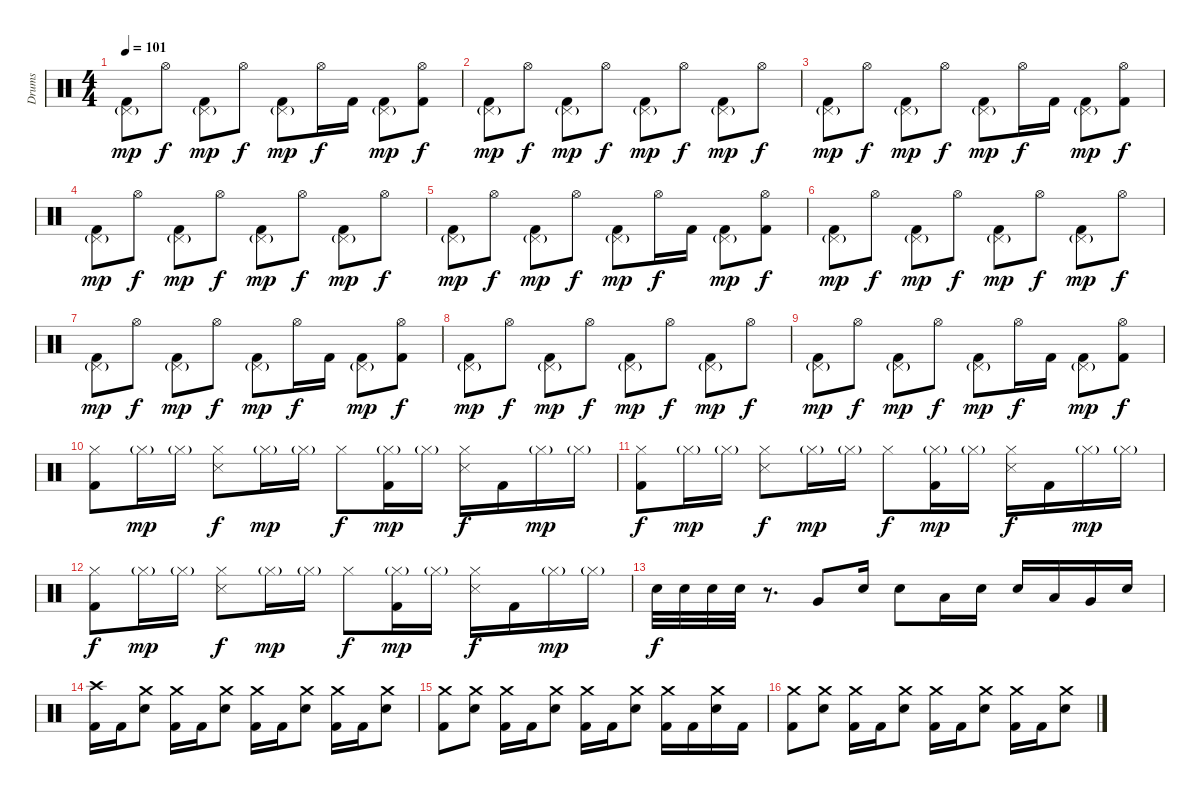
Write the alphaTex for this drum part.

\track ("Drums" "Drums") {instrument percussion}
\staff {score}
\articulation defaults
\ts (4 4)
\tempo 101
\clef neutral
\ks c
("Pedal Hi-Hat (hit)"{g} "Kick (hit) 2").8{dy mp} "Hi-Hat (open)".8{dy f} ("Pedal Hi-Hat (hit)"{g} "Kick (hit) 2").8{dy mp} "Hi-Hat (open)".8{dy f} ("Pedal Hi-Hat (hit)"{g} "Kick (hit) 2").8{dy mp} "Hi-Hat (open)".16{dy f} "Kick (hit) 2".16 ("Pedal Hi-Hat (hit)"{g} "Kick (hit) 2").8{dy mp} ("Hi-Hat (open)" "Kick (hit) 2").8{dy f} |
("Pedal Hi-Hat (hit)"{g} "Kick (hit) 2").8{dy mp} "Hi-Hat (open)".8{dy f} ("Pedal Hi-Hat (hit)"{g} "Kick (hit) 2").8{dy mp} "Hi-Hat (open)".8{dy f} ("Pedal Hi-Hat (hit)"{g} "Kick (hit) 2").8{dy mp} "Hi-Hat (open)".8{dy f} ("Pedal Hi-Hat (hit)"{g} "Kick (hit) 2").8{dy mp} "Hi-Hat (open)".8{dy f} |
("Pedal Hi-Hat (hit)"{g} "Kick (hit) 2").8{dy mp} "Hi-Hat (open)".8{dy f} ("Pedal Hi-Hat (hit)"{g} "Kick (hit) 2").8{dy mp} "Hi-Hat (open)".8{dy f} ("Pedal Hi-Hat (hit)"{g} "Kick (hit) 2").8{dy mp} "Hi-Hat (open)".16{dy f} "Kick (hit) 2".16 ("Pedal Hi-Hat (hit)"{g} "Kick (hit) 2").8{dy mp} ("Hi-Hat (open)" "Kick (hit) 2").8{dy f} |
("Pedal Hi-Hat (hit)"{g} "Kick (hit) 2").8{dy mp} "Hi-Hat (open)".8{dy f} ("Pedal Hi-Hat (hit)"{g} "Kick (hit) 2").8{dy mp} "Hi-Hat (open)".8{dy f} ("Pedal Hi-Hat (hit)"{g} "Kick (hit) 2").8{dy mp} "Hi-Hat (open)".8{dy f} ("Pedal Hi-Hat (hit)"{g} "Kick (hit) 2").8{dy mp} "Hi-Hat (open)".8{dy f} |
("Pedal Hi-Hat (hit)"{g} "Kick (hit) 2").8{dy mp} "Hi-Hat (open)".8{dy f} ("Pedal Hi-Hat (hit)"{g} "Kick (hit) 2").8{dy mp} "Hi-Hat (open)".8{dy f} ("Pedal Hi-Hat (hit)"{g} "Kick (hit) 2").8{dy mp} "Hi-Hat (open)".16{dy f} "Kick (hit) 2".16 ("Pedal Hi-Hat (hit)"{g} "Kick (hit) 2").8{dy mp} ("Hi-Hat (open)" "Kick (hit) 2").8{dy f} |
("Pedal Hi-Hat (hit)"{g} "Kick (hit) 2").8{dy mp} "Hi-Hat (open)".8{dy f} ("Pedal Hi-Hat (hit)"{g} "Kick (hit) 2").8{dy mp} "Hi-Hat (open)".8{dy f} ("Pedal Hi-Hat (hit)"{g} "Kick (hit) 2").8{dy mp} "Hi-Hat (open)".8{dy f} ("Pedal Hi-Hat (hit)"{g} "Kick (hit) 2").8{dy mp} "Hi-Hat (open)".8{dy f} |
("Pedal Hi-Hat (hit)"{g} "Kick (hit) 2").8{dy mp} "Hi-Hat (open)".8{dy f} ("Pedal Hi-Hat (hit)"{g} "Kick (hit) 2").8{dy mp} "Hi-Hat (open)".8{dy f} ("Pedal Hi-Hat (hit)"{g} "Kick (hit) 2").8{dy mp} "Hi-Hat (open)".16{dy f} "Kick (hit) 2".16 ("Pedal Hi-Hat (hit)"{g} "Kick (hit) 2").8{dy mp} ("Hi-Hat (open)" "Kick (hit) 2").8{dy f} |
("Pedal Hi-Hat (hit)"{g} "Kick (hit) 2").8{dy mp} "Hi-Hat (open)".8{dy f} ("Pedal Hi-Hat (hit)"{g} "Kick (hit) 2").8{dy mp} "Hi-Hat (open)".8{dy f} ("Pedal Hi-Hat (hit)"{g} "Kick (hit) 2").8{dy mp} "Hi-Hat (open)".8{dy f} ("Pedal Hi-Hat (hit)"{g} "Kick (hit) 2").8{dy mp} "Hi-Hat (open)".8{dy f} |
("Pedal Hi-Hat (hit)"{g} "Kick (hit) 2").8{dy mp} "Hi-Hat (open)".8{dy f} ("Pedal Hi-Hat (hit)"{g} "Kick (hit) 2").8{dy mp} "Hi-Hat (open)".8{dy f} ("Pedal Hi-Hat (hit)"{g} "Kick (hit) 2").8{dy mp} "Hi-Hat (open)".16{dy f} "Kick (hit) 2".16 ("Pedal Hi-Hat (hit)"{g} "Kick (hit) 2").8{dy mp} ("Hi-Hat (open)" "Kick (hit) 2").8{dy f} |
("Hi-Hat (closed)" "Kick (hit) 2").8 "Hi-Hat (closed)"{g}.16{dy mp} "Hi-Hat (closed)"{g}.16 ("Hi-Hat (closed)" "Snare (side stick) 3").8{dy f} "Hi-Hat (closed)"{g}.16{dy mp} "Hi-Hat (closed)"{g}.16 "Hi-Hat (closed)".8{dy f} ("Hi-Hat (closed)"{g} "Kick (hit) 2").16{dy mp} "Hi-Hat (closed)"{g}.16 ("Hi-Hat (closed)" "Snare (side stick) 3").16{dy f} "Kick (hit) 2".16 "Hi-Hat (closed)"{g}.16{dy mp} "Hi-Hat (closed)"{g}.16 |
("Hi-Hat (closed)" "Kick (hit) 2").8{dy f} "Hi-Hat (closed)"{g}.16{dy mp} "Hi-Hat (closed)"{g}.16 ("Hi-Hat (closed)" "Snare (side stick) 3").8{dy f} "Hi-Hat (closed)"{g}.16{dy mp} "Hi-Hat (closed)"{g}.16 "Hi-Hat (closed)".8{dy f} ("Hi-Hat (closed)"{g} "Kick (hit) 2").16{dy mp} "Hi-Hat (closed)"{g}.16 ("Hi-Hat (closed)" "Snare (side stick) 3").16{dy f} "Kick (hit) 2".16 "Hi-Hat (closed)"{g}.16{dy mp} "Hi-Hat (closed)"{g}.16 |
("Hi-Hat (closed)" "Kick (hit) 2").8{dy f} "Hi-Hat (closed)"{g}.16{dy mp} "Hi-Hat (closed)"{g}.16 ("Hi-Hat (closed)" "Snare (side stick) 3").8{dy f} "Hi-Hat (closed)"{g}.16{dy mp} "Hi-Hat (closed)"{g}.16 "Hi-Hat (closed)".8{dy f} ("Hi-Hat (closed)"{g} "Kick (hit) 2").16{dy mp} "Hi-Hat (closed)"{g}.16 ("Hi-Hat (closed)" "Snare (side stick) 3").16{dy f} "Kick (hit) 2".16 "Hi-Hat (closed)"{g}.16{dy mp} "Hi-Hat (closed)"{g}.16 |
"Snare (hit) 2".32{dy f} "Snare (hit) 2".32 "Snare (hit) 2".32 "Snare (hit) 2".32 r.8{d} "Very Low Tom (hit)".8 "Snare (hit) 2".16 "Snare (hit) 2".8 "Low Tom (hit)".16 "Snare (hit) 2".16 "Snare (hit) 2".16 "Low Tom (hit)".16 "Very Low Tom (hit)".16 "Snare (hit) 2".16 |
("Crash high (hit)" "Kick (hit) 2").16 "Kick (hit) 2".16 ("Crash medium (hit)" "Snare (hit) 2").8 ("Crash medium (hit)" "Kick (hit) 2").16 "Kick (hit) 2".16 ("Crash medium (hit)" "Snare (hit) 2").8 ("Crash medium (hit)" "Kick (hit) 2").16 "Kick (hit) 2".16 ("Crash medium (hit)" "Snare (hit) 2").8 ("Crash medium (hit)" "Kick (hit) 2").16 "Kick (hit) 2".16 ("Crash medium (hit)" "Snare (hit) 2").8 |
("Crash medium (hit)" "Kick (hit) 2").8 ("Crash medium (hit)" "Snare (hit) 2").8 ("Crash medium (hit)" "Kick (hit) 2").16 "Kick (hit) 2".16 ("Crash medium (hit)" "Snare (hit) 2").8 ("Crash medium (hit)" "Kick (hit) 2").16 "Kick (hit) 2".16 ("Crash medium (hit)" "Snare (hit) 2").8 ("Crash medium (hit)" "Kick (hit) 2").16 "Kick (hit) 2".16 ("Crash medium (hit)" "Snare (hit) 2").16 "Kick (hit) 2".16 |
("Crash medium (hit)" "Kick (hit) 2").8 ("Crash medium (hit)" "Snare (hit) 2").8 ("Crash medium (hit)" "Kick (hit) 2").16 "Kick (hit) 2".16 ("Crash medium (hit)" "Snare (hit) 2").8 ("Crash medium (hit)" "Kick (hit) 2").16 "Kick (hit) 2".16 ("Crash medium (hit)" "Snare (hit) 2").8 ("Crash medium (hit)" "Kick (hit) 2").16 "Kick (hit) 2".16 ("Crash medium (hit)" "Snare (hit) 2").8
